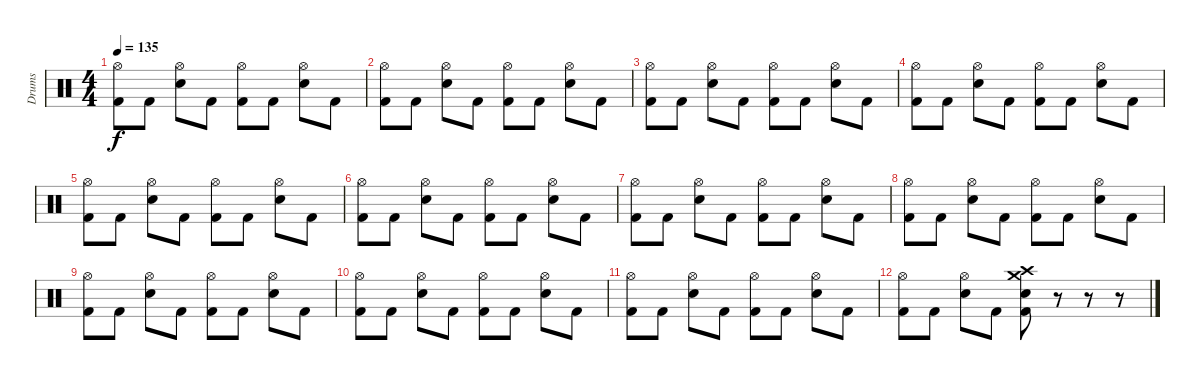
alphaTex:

\track ("Drums" "Drums") {instrument percussion}
\staff {score}
\articulation defaults
\ts (4 4)
\tempo 135
\clef neutral
\ks c
("Hi-Hat (open)" "Kick (hit) 2").8{dy f} "Kick (hit) 2".8 ("Hi-Hat (open)" "Electric Snare (hit)").8 "Kick (hit) 2".8 ("Hi-Hat (open)" "Kick (hit) 2").8 "Kick (hit) 2".8 ("Hi-Hat (open)" "Electric Snare (hit)").8 "Kick (hit) 2".8 |
("Hi-Hat (open)" "Kick (hit) 2").8 "Kick (hit) 2".8 ("Hi-Hat (open)" "Electric Snare (hit)").8 "Kick (hit) 2".8 ("Hi-Hat (open)" "Kick (hit) 2").8 "Kick (hit) 2".8 ("Hi-Hat (open)" "Electric Snare (hit)").8 "Kick (hit) 2".8 |
("Hi-Hat (open)" "Kick (hit) 2").8 "Kick (hit) 2".8 ("Hi-Hat (open)" "Electric Snare (hit)").8 "Kick (hit) 2".8 ("Hi-Hat (open)" "Kick (hit) 2").8 "Kick (hit) 2".8 ("Hi-Hat (open)" "Electric Snare (hit)").8 "Kick (hit) 2".8 |
("Hi-Hat (open)" "Kick (hit) 2").8 "Kick (hit) 2".8 ("Hi-Hat (open)" "Electric Snare (hit)").8 "Kick (hit) 2".8 ("Hi-Hat (open)" "Kick (hit) 2").8 "Kick (hit) 2".8 ("Hi-Hat (open)" "Electric Snare (hit)").8 "Kick (hit) 2".8 |
("Hi-Hat (open)" "Kick (hit) 2").8 "Kick (hit) 2".8 ("Hi-Hat (open)" "Electric Snare (hit)").8 "Kick (hit) 2".8 ("Hi-Hat (open)" "Kick (hit) 2").8 "Kick (hit) 2".8 ("Hi-Hat (open)" "Electric Snare (hit)").8 "Kick (hit) 2".8 |
("Hi-Hat (open)" "Kick (hit) 2").8 "Kick (hit) 2".8 ("Hi-Hat (open)" "Electric Snare (hit)").8 "Kick (hit) 2".8 ("Hi-Hat (open)" "Kick (hit) 2").8 "Kick (hit) 2".8 ("Hi-Hat (open)" "Electric Snare (hit)").8 "Kick (hit) 2".8 |
("Hi-Hat (open)" "Kick (hit) 2").8 "Kick (hit) 2".8 ("Hi-Hat (open)" "Electric Snare (hit)").8 "Kick (hit) 2".8 ("Hi-Hat (open)" "Kick (hit) 2").8 "Kick (hit) 2".8 ("Hi-Hat (open)" "Electric Snare (hit)").8 "Kick (hit) 2".8 |
("Hi-Hat (open)" "Kick (hit) 2").8 "Kick (hit) 2".8 ("Hi-Hat (open)" "Electric Snare (hit)").8 "Kick (hit) 2".8 ("Hi-Hat (open)" "Kick (hit) 2").8 "Kick (hit) 2".8 ("Hi-Hat (open)" "Electric Snare (hit)").8 "Kick (hit) 2".8 |
("Hi-Hat (open)" "Kick (hit) 2").8 "Kick (hit) 2".8 ("Hi-Hat (open)" "Electric Snare (hit)").8 "Kick (hit) 2".8 ("Hi-Hat (open)" "Kick (hit) 2").8 "Kick (hit) 2".8 ("Hi-Hat (open)" "Electric Snare (hit)").8 "Kick (hit) 2".8 |
("Hi-Hat (open)" "Kick (hit) 2").8 "Kick (hit) 2".8 ("Hi-Hat (open)" "Electric Snare (hit)").8 "Kick (hit) 2".8 ("Hi-Hat (open)" "Kick (hit) 2").8 "Kick (hit) 2".8 ("Hi-Hat (open)" "Electric Snare (hit)").8 "Kick (hit) 2".8 |
("Hi-Hat (open)" "Kick (hit) 2").8 "Kick (hit) 2".8 ("Hi-Hat (open)" "Electric Snare (hit)").8 "Kick (hit) 2".8 ("Hi-Hat (open)" "Kick (hit) 2").8 "Kick (hit) 2".8 ("Hi-Hat (open)" "Electric Snare (hit)").8 "Kick (hit) 2".8 |
("Hi-Hat (open)" "Kick (hit) 2").8 "Kick (hit) 2".8 ("Hi-Hat (open)" "Electric Snare (hit)").8 "Kick (hit) 2".8 ("Crash medium (hit)" "Crash high (hit)" "Electric Snare (hit)" "Kick (hit) 2").8 r.8 r.8 r.8
